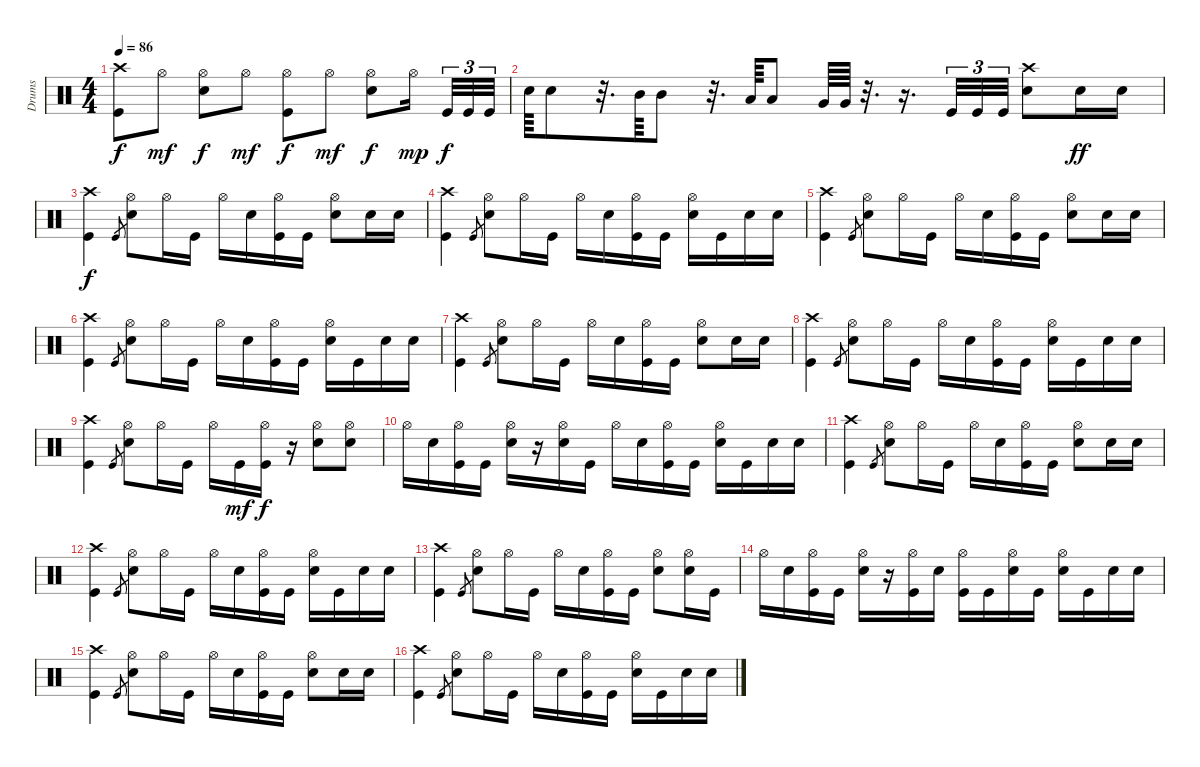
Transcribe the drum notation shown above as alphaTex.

\track ("Drums" "Drums") {instrument percussion}
\staff {score}
\articulation defaults
\ts (4 4)
\tempo 86
\clef neutral
\ks c
("Crash high (hit)" "Kick (hit)").8{dy f} "Hi-Hat (open)".8{dy mf} ("Hi-Hat (open)" "Snare (hit) 2").8{dy f} "Hi-Hat (open)".8{dy mf} ("Hi-Hat (open)" "Kick (hit)").8{dy f} "Hi-Hat (open)".8{dy mf} ("Hi-Hat (open)" "Snare (hit) 2").8{dy f} "Hi-Hat (open)".16{dy mp} "Kick (hit)".32{tu (3 2) dy f} "Kick (hit)".32{tu (3 2)} "Kick (hit)".32{tu (3 2)} |
"Snare (hit) 2".64 "Snare (hit) 2".8 r.32{d} "Mid Tom (hit)".64 "Mid Tom (hit)".8 r.32{d} "Low Tom (hit)".64 "Low Tom (hit)".8 "Very Low Tom (hit)".64 "Very Low Tom (hit)".64 r.32{d} r.16{d} "Kick (hit)".32{tu (3 2)} "Kick (hit)".32{tu (3 2)} "Kick (hit)".32{tu (3 2)} ("Crash high (hit)" "Snare (hit) 2").8 "Snare (hit) 2".16{dy ff} "Snare (hit) 2".16 |
("Crash high (hit)" "Kick (hit)").4{dy f} "Kick (hit)".8{gr} ("Hi-Hat (open)" "Snare (hit) 2").8 "Hi-Hat (open)".16 "Kick (hit)".16 "Hi-Hat (open)".16 "Snare (hit) 2".16 ("Hi-Hat (open)" "Kick (hit)").16 "Kick (hit)".16 ("Hi-Hat (open)" "Snare (hit) 2").8 "Snare (hit) 2".16 "Snare (hit) 2".16 |
("Crash high (hit)" "Kick (hit)").4 "Kick (hit)".8{gr} ("Hi-Hat (open)" "Snare (hit) 2").8 "Hi-Hat (open)".16 "Kick (hit)".16 "Hi-Hat (open)".16 "Snare (hit) 2".16 ("Hi-Hat (open)" "Kick (hit)").16 "Kick (hit)".16 ("Hi-Hat (open)" "Snare (hit) 2").16 "Kick (hit)".16 "Snare (hit) 2".16 "Snare (hit) 2".16 |
("Crash high (hit)" "Kick (hit)").4 "Kick (hit)".8{gr} ("Hi-Hat (open)" "Snare (hit) 2").8 "Hi-Hat (open)".16 "Kick (hit)".16 "Hi-Hat (open)".16 "Snare (hit) 2".16 ("Hi-Hat (open)" "Kick (hit)").16 "Kick (hit)".16 ("Hi-Hat (open)" "Snare (hit) 2").8 "Snare (hit) 2".16 "Snare (hit) 2".16 |
("Crash high (hit)" "Kick (hit)").4 "Kick (hit)".8{gr} ("Hi-Hat (open)" "Snare (hit) 2").8 "Hi-Hat (open)".16 "Kick (hit)".16 "Hi-Hat (open)".16 "Snare (hit) 2".16 ("Hi-Hat (open)" "Kick (hit)").16 "Kick (hit)".16 ("Hi-Hat (open)" "Snare (hit) 2").16 "Kick (hit)".16 "Snare (hit) 2".16 "Snare (hit) 2".16 |
("Crash high (hit)" "Kick (hit)").4 "Kick (hit)".8{gr} ("Hi-Hat (open)" "Snare (hit) 2").8 "Hi-Hat (open)".16 "Kick (hit)".16 "Hi-Hat (open)".16 "Snare (hit) 2".16 ("Hi-Hat (open)" "Kick (hit)").16 "Kick (hit)".16 ("Hi-Hat (open)" "Snare (hit) 2").8 "Snare (hit) 2".16 "Snare (hit) 2".16 |
("Crash high (hit)" "Kick (hit)").4 "Kick (hit)".8{gr} ("Hi-Hat (open)" "Snare (hit) 2").8 "Hi-Hat (open)".16 "Kick (hit)".16 "Hi-Hat (open)".16 "Snare (hit) 2".16 ("Hi-Hat (open)" "Kick (hit)").16 "Kick (hit)".16 ("Hi-Hat (open)" "Snare (hit) 2").16 "Kick (hit)".16 "Snare (hit) 2".16 "Snare (hit) 2".16 |
("Crash high (hit)" "Kick (hit)").4 "Kick (hit)".8{gr} ("Hi-Hat (open)" "Snare (hit) 2").8 "Hi-Hat (open)".16 "Kick (hit)".16 "Hi-Hat (open)".16 "Kick (hit)".16{dy mf} ("Hi-Hat (open)" "Kick (hit)").16{dy f} r.16 ("Hi-Hat (open)" "Snare (hit) 2").8 ("Hi-Hat (open)" "Snare (hit) 2").8 |
"Hi-Hat (open)".16 "Snare (hit) 2".16 ("Hi-Hat (open)" "Kick (hit)").16 "Kick (hit)".16 ("Hi-Hat (open)" "Snare (hit) 2").16 r.16 ("Hi-Hat (open)" "Snare (hit) 2").16 "Kick (hit)".16 "Hi-Hat (open)".16 "Snare (hit) 2".16 ("Hi-Hat (open)" "Kick (hit)").16 "Kick (hit)".16 ("Hi-Hat (open)" "Snare (hit) 2").16 "Kick (hit)".16 "Snare (hit) 2".16 "Snare (hit) 2".16 |
("Crash high (hit)" "Kick (hit)").4 "Kick (hit)".8{gr} ("Hi-Hat (open)" "Snare (hit) 2").8 "Hi-Hat (open)".16 "Kick (hit)".16 "Hi-Hat (open)".16 "Snare (hit) 2".16 ("Hi-Hat (open)" "Kick (hit)").16 "Kick (hit)".16 ("Hi-Hat (open)" "Snare (hit) 2").8 "Snare (hit) 2".16 "Snare (hit) 2".16 |
("Crash high (hit)" "Kick (hit)").4 "Kick (hit)".8{gr} ("Hi-Hat (open)" "Snare (hit) 2").8 "Hi-Hat (open)".16 "Kick (hit)".16 "Hi-Hat (open)".16 "Snare (hit) 2".16 ("Hi-Hat (open)" "Kick (hit)").16 "Kick (hit)".16 ("Hi-Hat (open)" "Snare (hit) 2").16 "Kick (hit)".16 "Snare (hit) 2".16 "Snare (hit) 2".16 |
("Crash high (hit)" "Kick (hit)").4 "Kick (hit)".8{gr} ("Hi-Hat (open)" "Snare (hit) 2").8 "Hi-Hat (open)".16 "Kick (hit)".16 "Hi-Hat (open)".16 "Snare (hit) 2".16 ("Hi-Hat (open)" "Kick (hit)").16 "Kick (hit)".16 ("Hi-Hat (open)" "Snare (hit) 2").8 ("Hi-Hat (open)" "Snare (hit) 2").16 "Kick (hit)".16 |
"Hi-Hat (open)".16 "Snare (hit) 2".16 ("Hi-Hat (open)" "Kick (hit)").16 "Kick (hit)".16 ("Hi-Hat (open)" "Snare (hit) 2").16 r.16 ("Hi-Hat (open)" "Kick (hit)").16 "Snare (hit) 2".16 ("Hi-Hat (open)" "Kick (hit)").16 "Kick (hit)".16 ("Hi-Hat (open)" "Snare (hit) 2").16 "Kick (hit)".16 ("Hi-Hat (open)" "Snare (hit) 2").16 "Kick (hit)".16 "Snare (hit) 2".16 "Snare (hit) 2".16 |
("Crash high (hit)" "Kick (hit)").4 "Kick (hit)".8{gr} ("Hi-Hat (open)" "Snare (hit) 2").8 "Hi-Hat (open)".16 "Kick (hit)".16 "Hi-Hat (open)".16 "Snare (hit) 2".16 ("Hi-Hat (open)" "Kick (hit)").16 "Kick (hit)".16 ("Hi-Hat (open)" "Snare (hit) 2").8 "Snare (hit) 2".16 "Snare (hit) 2".16 |
("Crash high (hit)" "Kick (hit)").4 "Kick (hit)".8{gr} ("Hi-Hat (open)" "Snare (hit) 2").8 "Hi-Hat (open)".16 "Kick (hit)".16 "Hi-Hat (open)".16 "Snare (hit) 2".16 ("Hi-Hat (open)" "Kick (hit)").16 "Kick (hit)".16 ("Hi-Hat (open)" "Snare (hit) 2").16 "Kick (hit)".16 "Snare (hit) 2".16 "Snare (hit) 2".16
